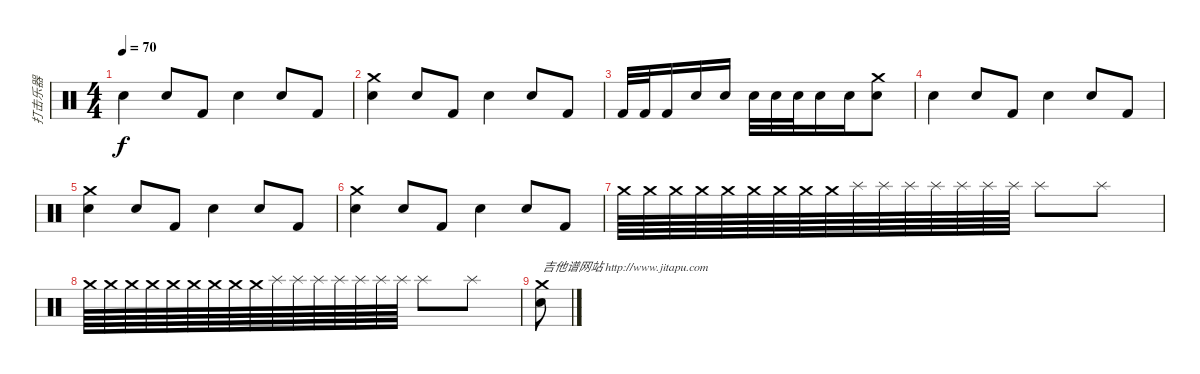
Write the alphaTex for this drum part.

\track ("打击乐器" "打击乐器") {instrument percussion}
\staff {score}
\articulation defaults
\ts (4 4)
\tempo 70
\clef neutral
\ks c "Snare (hit) 2".4{dy f} "Electric Snare (hit)".8 "Kick (hit) 2".8 "Snare (hit) 2".4 "Electric Snare (hit)".8 "Kick (hit) 2".8
|
("Crash medium (hit)" "Snare (hit) 2").4 "Electric Snare (hit)".8 "Kick (hit) 2".8 "Snare (hit) 2".4 "Electric Snare (hit)".8 "Kick (hit) 2".8 |
"Kick (hit) 2".32 "Kick (hit) 2".32 "Kick (hit) 2".16 "Snare (hit) 2".16 "Snare (hit) 2".16 "Snare (hit) 2".32 "Electric Snare (hit)".32 "Electric Snare (hit)".32 "Electric Snare (hit)".16 "Snare (hit) 2".16 ("Crash medium (hit)" "Snare (hit) 2").8 |
"Snare (hit) 2".4 "Electric Snare (hit)".8 "Kick (hit) 2".8 "Snare (hit) 2".4 "Electric Snare (hit)".8 "Kick (hit) 2".8 |
("Crash medium (hit)" "Snare (hit) 2").4 "Electric Snare (hit)".8 "Kick (hit) 2".8 "Snare (hit) 2".4 "Electric Snare (hit)".8 "Kick (hit) 2".8 |
("Crash medium (hit)" "Snare (hit) 2").4 "Electric Snare (hit)".8 "Kick (hit) 2".8 "Snare (hit) 2".4 "Electric Snare (hit)".8 "Kick (hit) 2".8 |
"Crash medium (hit)".64 "Crash medium (hit)".64 "Crash medium (hit)".64 "Crash medium (hit)".64 "Crash medium (hit)".64 "Crash medium (hit)".64 "Crash medium (hit)".64 "Crash medium (hit)".64 "Crash medium (hit)".64 "Splash (hit)".64 "Splash (hit)".64 "Splash (hit)".64 "Splash (hit)".64 "Splash (hit)".64 "Splash (hit)".64 "Splash (hit)".64 "Splash (hit)".8 "Splash (hit)".8 |
"Crash medium (hit)".64 "Crash medium (hit)".64 "Crash medium (hit)".64 "Crash medium (hit)".64 "Crash medium (hit)".64 "Crash medium (hit)".64 "Crash medium (hit)".64 "Crash medium (hit)".64 "Crash medium (hit)".64 "Splash (hit)".64 "Splash (hit)".64 "Splash (hit)".64 "Splash (hit)".64 "Splash (hit)".64 "Splash (hit)".64 "Splash (hit)".64 "Splash (hit)".8 "Splash (hit)".8 |
("Snare (hit) 2" "Crash medium (hit)").8{txt "吉他谱网站 http://www.jitapu.com"}
